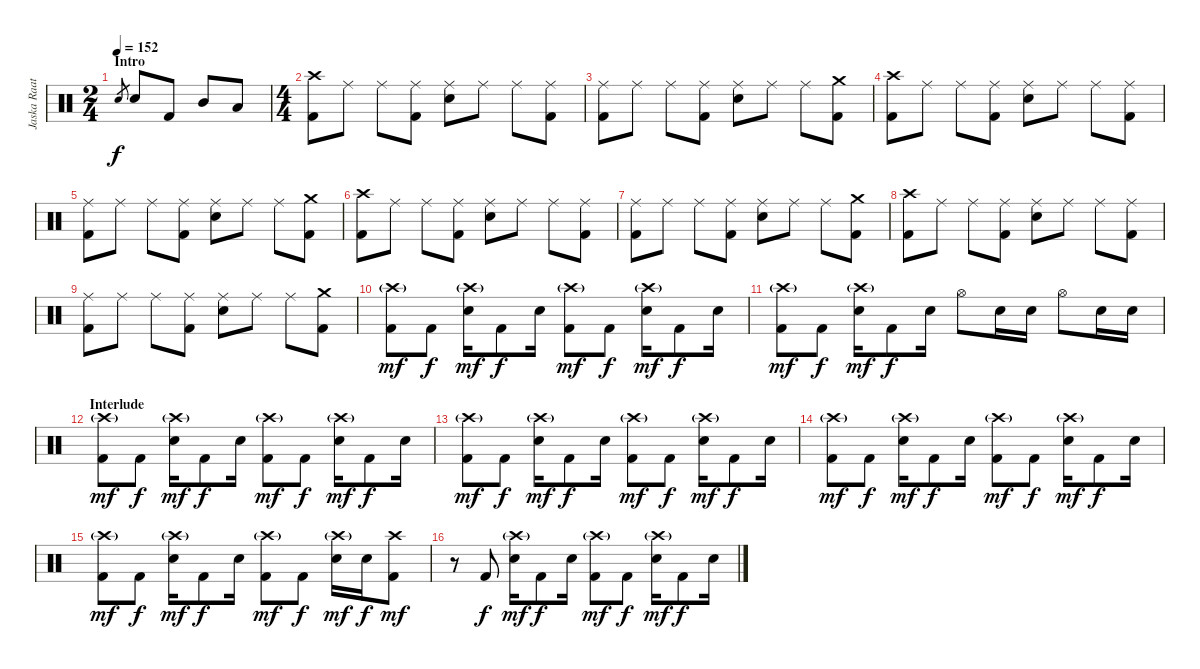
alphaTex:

\track ("Jaska Raatikainen" "Jaska Raat") {instrument percussion}
\staff {score}
\articulation defaults
\ts (2 4)
\section ("" "Intro")
\tempo 152
\clef neutral
\ks c "Electric Snare (hit)".8{gr dy f} "Electric Snare (hit)".8 "Kick (hit) 2".8 "Mid Tom (hit)".8 "Low Tom (hit)".8
|
\ts (4 4)
("Crash high (hit)" "Kick (hit) 2").8 "Ride (middle)".8 "Ride (middle)".8 ("Ride (middle)" "Kick (hit) 2").8 ("Ride (middle)" "Electric Snare (hit)").8 "Ride (middle)".8 "Ride (middle)".8 ("Ride (middle)" "Kick (hit) 2").8 |
("Ride (middle)" "Kick (hit) 2").8 "Ride (middle)".8 "Ride (middle)".8 ("Ride (middle)" "Kick (hit) 2").8 ("Ride (middle)" "Electric Snare (hit)").8 "Ride (middle)".8 "Ride (middle)".8 ("Crash medium (hit)" "Kick (hit) 2").8 |
("Crash high (hit)" "Kick (hit) 2").8 "Ride (middle)".8 "Ride (middle)".8 ("Ride (middle)" "Kick (hit) 2").8 ("Ride (middle)" "Electric Snare (hit)").8 "Ride (middle)".8 "Ride (middle)".8 ("Ride (middle)" "Kick (hit) 2").8 |
("Ride (middle)" "Kick (hit) 2").8 "Ride (middle)".8 "Ride (middle)".8 ("Ride (middle)" "Kick (hit) 2").8 ("Ride (middle)" "Electric Snare (hit)").8 "Ride (middle)".8 "Ride (middle)".8 ("Crash medium (hit)" "Kick (hit) 2").8 |
("Crash high (hit)" "Kick (hit) 2").8 "Ride (middle)".8 "Ride (middle)".8 ("Ride (middle)" "Kick (hit) 2").8 ("Ride (middle)" "Electric Snare (hit)").8 "Ride (middle)".8 "Ride (middle)".8 ("Ride (middle)" "Kick (hit) 2").8 |
("Ride (middle)" "Kick (hit) 2").8 "Ride (middle)".8 "Ride (middle)".8 ("Ride (middle)" "Kick (hit) 2").8 ("Ride (middle)" "Electric Snare (hit)").8 "Ride (middle)".8 "Ride (middle)".8 ("Crash medium (hit)" "Kick (hit) 2").8 |
("Crash high (hit)" "Kick (hit) 2").8 "Ride (middle)".8 "Ride (middle)".8 ("Ride (middle)" "Kick (hit) 2").8 ("Ride (middle)" "Electric Snare (hit)").8 "Ride (middle)".8 "Ride (middle)".8 ("Ride (middle)" "Kick (hit) 2").8 |
("Ride (middle)" "Kick (hit) 2").8 "Ride (middle)".8 "Ride (middle)".8 ("Ride (middle)" "Kick (hit) 2").8 ("Ride (middle)" "Electric Snare (hit)").8 "Ride (middle)".8 "Ride (middle)".8 ("Crash medium (hit)" "Kick (hit) 2").8 |
("Crash high (hit)"{g} "Kick (hit) 2").8{dy mf} "Kick (hit) 2".8{dy f} ("Crash high (hit)"{g} "Electric Snare (hit)").16{dy mf} "Kick (hit) 2".8{dy f} "Electric Snare (hit)".16 ("Crash high (hit)"{g} "Kick (hit) 2").8{dy mf} "Kick (hit) 2".8{dy f} ("Crash high (hit)"{g} "Electric Snare (hit)").16{dy mf} "Kick (hit) 2".8{dy f} "Electric Snare (hit)".16 |
("Crash high (hit)"{g} "Kick (hit) 2").8{dy mf} "Kick (hit) 2".8{dy f} ("Crash high (hit)"{g} "Electric Snare (hit)").16{dy mf} "Kick (hit) 2".8{dy f} "Electric Snare (hit)".16 "Hi-Hat (open)".8 "Electric Snare (hit)".16 "Electric Snare (hit)".16 "Hi-Hat (open)".8 "Electric Snare (hit)".16 "Electric Snare (hit)".16 |
\section ("" "Interlude")
("Crash high (hit)"{g} "Kick (hit) 2").8{dy mf} "Kick (hit) 2".8{dy f} ("Crash high (hit)"{g} "Electric Snare (hit)").16{dy mf} "Kick (hit) 2".8{dy f} "Electric Snare (hit)".16 ("Crash high (hit)"{g} "Kick (hit) 2").8{dy mf} "Kick (hit) 2".8{dy f} ("Crash high (hit)"{g} "Electric Snare (hit)").16{dy mf} "Kick (hit) 2".8{dy f} "Electric Snare (hit)".16 |
("Crash high (hit)"{g} "Kick (hit) 2").8{dy mf} "Kick (hit) 2".8{dy f} ("Crash high (hit)"{g} "Electric Snare (hit)").16{dy mf} "Kick (hit) 2".8{dy f} "Electric Snare (hit)".16 ("Crash high (hit)"{g} "Kick (hit) 2").8{dy mf} "Kick (hit) 2".8{dy f} ("Crash high (hit)"{g} "Electric Snare (hit)").16{dy mf} "Kick (hit) 2".8{dy f} "Electric Snare (hit)".16 |
("Crash high (hit)"{g} "Kick (hit) 2").8{dy mf} "Kick (hit) 2".8{dy f} ("Crash high (hit)"{g} "Electric Snare (hit)").16{dy mf} "Kick (hit) 2".8{dy f} "Electric Snare (hit)".16 ("Crash high (hit)"{g} "Kick (hit) 2").8{dy mf} "Kick (hit) 2".8{dy f} ("Crash high (hit)"{g} "Electric Snare (hit)").16{dy mf} "Kick (hit) 2".8{dy f} "Electric Snare (hit)".16 |
("Crash high (hit)"{g} "Kick (hit) 2").8{dy mf} "Kick (hit) 2".8{dy f} ("Crash high (hit)"{g} "Electric Snare (hit)").16{dy mf} "Kick (hit) 2".8{dy f} "Electric Snare (hit)".16 ("Crash high (hit)"{g} "Kick (hit) 2").8{dy mf} "Kick (hit) 2".8{dy f} ("Crash high (hit)"{g} "Electric Snare (hit)").16{dy mf} "Electric Snare (hit)".16{dy f} ("Crash high (hit)" "Kick (hit) 2").8{dy mf} |
r.8 "Kick (hit) 2".8{dy f} ("Crash high (hit)"{g} "Electric Snare (hit)").16{dy mf} "Kick (hit) 2".8{dy f} "Electric Snare (hit)".16 ("Crash high (hit)"{g} "Kick (hit) 2").8{dy mf} "Kick (hit) 2".8{dy f} ("Crash high (hit)"{g} "Electric Snare (hit)").16{dy mf} "Kick (hit) 2".8{dy f} "Electric Snare (hit)".16
